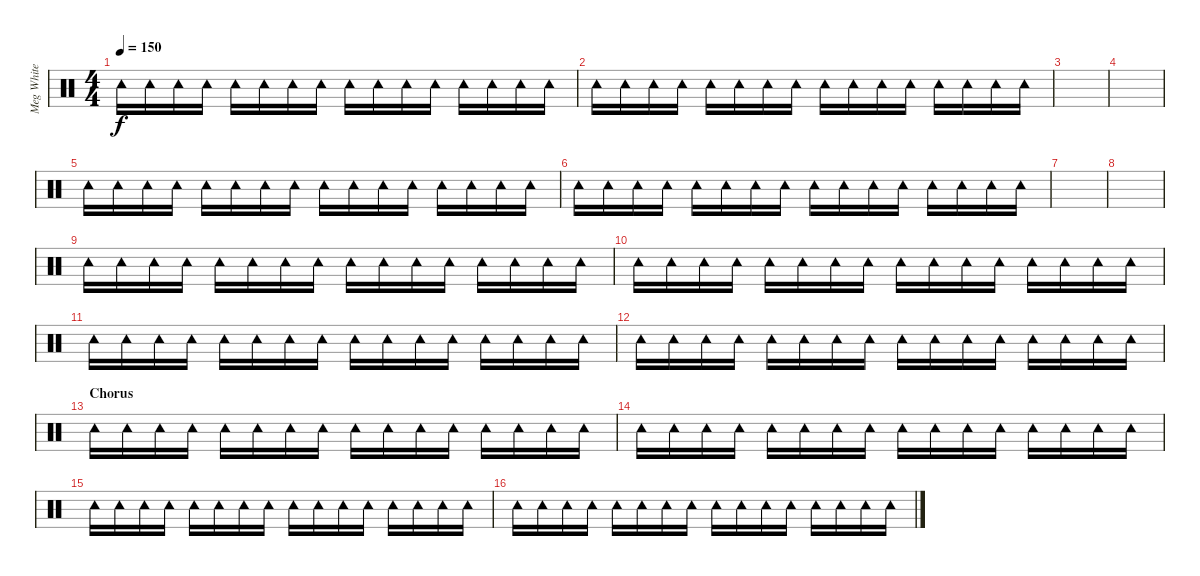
\track ("Meg White - Tambourine" "Meg White ") {instrument percussion}
\staff {score}
\articulation defaults
\ts (4 4)
\tempo 150
\clef neutral
\ks c "Tambourine (hit)".16{dy f} "Tambourine (hit)".16 "Tambourine (hit)".16 "Tambourine (hit)".16 "Tambourine (hit)".16 "Tambourine (hit)".16 "Tambourine (hit)".16 "Tambourine (hit)".16 "Tambourine (hit)".16 "Tambourine (hit)".16 "Tambourine (hit)".16 "Tambourine (hit)".16 "Tambourine (hit)".16 "Tambourine (hit)".16 "Tambourine (hit)".16 "Tambourine (hit)".16
|
"Tambourine (hit)".16 "Tambourine (hit)".16 "Tambourine (hit)".16 "Tambourine (hit)".16 "Tambourine (hit)".16 "Tambourine (hit)".16 "Tambourine (hit)".16 "Tambourine (hit)".16 "Tambourine (hit)".16 "Tambourine (hit)".16 "Tambourine (hit)".16 "Tambourine (hit)".16 "Tambourine (hit)".16 "Tambourine (hit)".16 "Tambourine (hit)".16 "Tambourine (hit)".16 |
|
|
"Tambourine (hit)".16 "Tambourine (hit)".16 "Tambourine (hit)".16 "Tambourine (hit)".16 "Tambourine (hit)".16 "Tambourine (hit)".16 "Tambourine (hit)".16 "Tambourine (hit)".16 "Tambourine (hit)".16 "Tambourine (hit)".16 "Tambourine (hit)".16 "Tambourine (hit)".16 "Tambourine (hit)".16 "Tambourine (hit)".16 "Tambourine (hit)".16 "Tambourine (hit)".16 |
"Tambourine (hit)".16 "Tambourine (hit)".16 "Tambourine (hit)".16 "Tambourine (hit)".16 "Tambourine (hit)".16 "Tambourine (hit)".16 "Tambourine (hit)".16 "Tambourine (hit)".16 "Tambourine (hit)".16 "Tambourine (hit)".16 "Tambourine (hit)".16 "Tambourine (hit)".16 "Tambourine (hit)".16 "Tambourine (hit)".16 "Tambourine (hit)".16 "Tambourine (hit)".16 |
|
|
"Tambourine (hit)".16 "Tambourine (hit)".16 "Tambourine (hit)".16 "Tambourine (hit)".16 "Tambourine (hit)".16 "Tambourine (hit)".16 "Tambourine (hit)".16 "Tambourine (hit)".16 "Tambourine (hit)".16 "Tambourine (hit)".16 "Tambourine (hit)".16 "Tambourine (hit)".16 "Tambourine (hit)".16 "Tambourine (hit)".16 "Tambourine (hit)".16 "Tambourine (hit)".16 |
"Tambourine (hit)".16 "Tambourine (hit)".16 "Tambourine (hit)".16 "Tambourine (hit)".16 "Tambourine (hit)".16 "Tambourine (hit)".16 "Tambourine (hit)".16 "Tambourine (hit)".16 "Tambourine (hit)".16 "Tambourine (hit)".16 "Tambourine (hit)".16 "Tambourine (hit)".16 "Tambourine (hit)".16 "Tambourine (hit)".16 "Tambourine (hit)".16 "Tambourine (hit)".16 |
"Tambourine (hit)".16 "Tambourine (hit)".16 "Tambourine (hit)".16 "Tambourine (hit)".16 "Tambourine (hit)".16 "Tambourine (hit)".16 "Tambourine (hit)".16 "Tambourine (hit)".16 "Tambourine (hit)".16 "Tambourine (hit)".16 "Tambourine (hit)".16 "Tambourine (hit)".16 "Tambourine (hit)".16 "Tambourine (hit)".16 "Tambourine (hit)".16 "Tambourine (hit)".16 |
"Tambourine (hit)".16 "Tambourine (hit)".16 "Tambourine (hit)".16 "Tambourine (hit)".16 "Tambourine (hit)".16 "Tambourine (hit)".16 "Tambourine (hit)".16 "Tambourine (hit)".16 "Tambourine (hit)".16 "Tambourine (hit)".16 "Tambourine (hit)".16 "Tambourine (hit)".16 "Tambourine (hit)".16 "Tambourine (hit)".16 "Tambourine (hit)".16 "Tambourine (hit)".16 |
\section ("" "Chorus")
"Tambourine (hit)".16 "Tambourine (hit)".16 "Tambourine (hit)".16 "Tambourine (hit)".16 "Tambourine (hit)".16 "Tambourine (hit)".16 "Tambourine (hit)".16 "Tambourine (hit)".16 "Tambourine (hit)".16 "Tambourine (hit)".16 "Tambourine (hit)".16 "Tambourine (hit)".16 "Tambourine (hit)".16 "Tambourine (hit)".16 "Tambourine (hit)".16 "Tambourine (hit)".16 |
"Tambourine (hit)".16 "Tambourine (hit)".16 "Tambourine (hit)".16 "Tambourine (hit)".16 "Tambourine (hit)".16 "Tambourine (hit)".16 "Tambourine (hit)".16 "Tambourine (hit)".16 "Tambourine (hit)".16 "Tambourine (hit)".16 "Tambourine (hit)".16 "Tambourine (hit)".16 "Tambourine (hit)".16 "Tambourine (hit)".16 "Tambourine (hit)".16 "Tambourine (hit)".16 |
"Tambourine (hit)".16 "Tambourine (hit)".16 "Tambourine (hit)".16 "Tambourine (hit)".16 "Tambourine (hit)".16 "Tambourine (hit)".16 "Tambourine (hit)".16 "Tambourine (hit)".16 "Tambourine (hit)".16 "Tambourine (hit)".16 "Tambourine (hit)".16 "Tambourine (hit)".16 "Tambourine (hit)".16 "Tambourine (hit)".16 "Tambourine (hit)".16 "Tambourine (hit)".16 |
"Tambourine (hit)".16 "Tambourine (hit)".16 "Tambourine (hit)".16 "Tambourine (hit)".16 "Tambourine (hit)".16 "Tambourine (hit)".16 "Tambourine (hit)".16 "Tambourine (hit)".16 "Tambourine (hit)".16 "Tambourine (hit)".16 "Tambourine (hit)".16 "Tambourine (hit)".16 "Tambourine (hit)".16 "Tambourine (hit)".16 "Tambourine (hit)".16 "Tambourine (hit)".16
